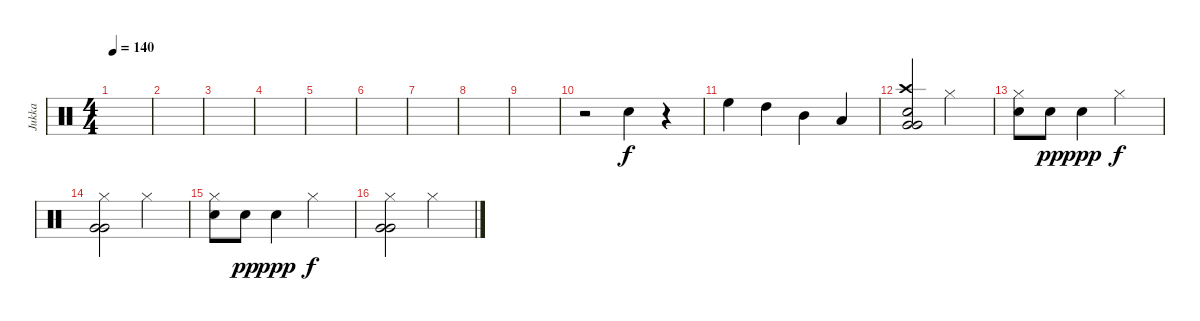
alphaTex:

\track ("Jukka" "Jukka") {instrument percussion}
\staff {score}
\articulation defaults
\ts (4 4)
\tempo 140
\clef neutral
\ks c
|
|
|
|
|
|
|
|
|
r.2 "Electric Snare (hit)".4 r.4 |
"High Floor Tom (hit)".4 "High Tom (hit)".4 "Mid Tom (hit)".4 "Low Tom (hit)".4 |
("Crash high (hit)" "Electric Snare (hit)" "Very Low Tom (hit)" "Very Low Tom (hit)").2 "Hi-Hat (closed)".2 |
("Hi-Hat (closed)" "Electric Snare (hit)").8 "Electric Snare (hit)".8{dy pp} "Electric Snare (hit)".4{dy ppp} "Hi-Hat (closed)".2{dy f} |
("Hi-Hat (closed)" "Very Low Tom (hit)" "Very Low Tom (hit)").2 "Hi-Hat (closed)".2 |
("Hi-Hat (closed)" "Electric Snare (hit)").8 "Electric Snare (hit)".8{dy pp} "Electric Snare (hit)".4{dy ppp} "Hi-Hat (closed)".2{dy f} |
("Hi-Hat (closed)" "Very Low Tom (hit)" "Very Low Tom (hit)").2 "Hi-Hat (closed)".2
